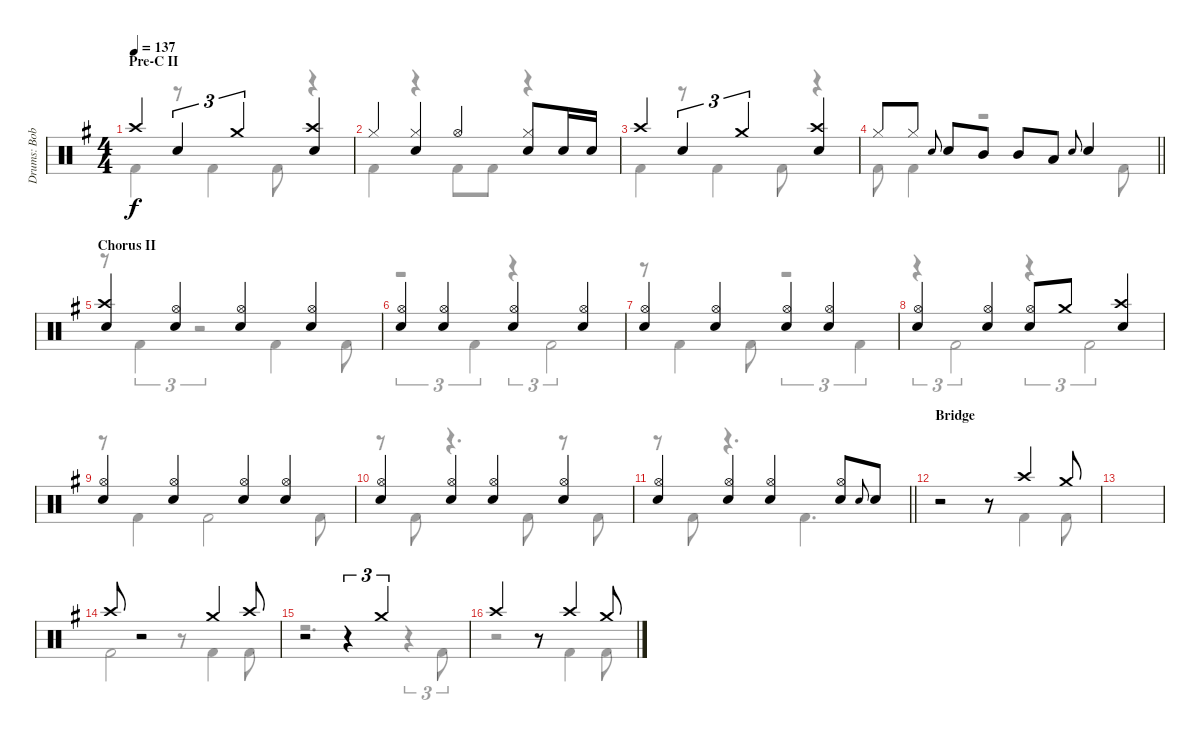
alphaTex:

\track ("Drums: Bobby" "Drums: Bob") {instrument percussion}
\staff {score}
\articulation defaults
\voice
\ts (4 4)
\section ("" "Pre-C II")
\tempo 137
\clef neutral
\ks g "Crash high (hit)".4{dy f} "Snare (hit) 2".4{tu (3 2)} "Crash medium (hit)".2{tu (3 2)}
("Crash high (hit)" "Snare (hit) 2").4 |
"Hi-Hat (closed)".4 ("Hi-Hat (closed)" "Snare (hit) 2").4 "Hi-Hat (open)".4 ("Hi-Hat (closed)" "Snare (hit) 2").8 "Snare (hit) 2".16 "Snare (hit) 2".16 |
"Crash high (hit)".4 "Snare (hit) 2".4{tu (3 2)} "Crash medium (hit)".2{tu (3 2)} ("Crash high (hit)" "Snare (hit) 2").4 |
\barLineRight lightlight "Hi-Hat (closed)".8 "Hi-Hat (closed)".8 "Electric Snare (hit)".8{gr onbeat} "Snare (hit) 2".8 "Mid Tom (hit)".8 "Mid Tom (hit)".8 "Low Tom (hit)".8 "Electric Snare (hit)".8{gr onbeat} "Snare (hit) 2".4
|
\section ("" "Chorus II")
("Crash high (hit)" "Snare (hit) 2").4 ("Hi-Hat (open)" "Snare (hit) 2").4 ("Hi-Hat (open)" "Snare (hit) 2").4 ("Hi-Hat (open)" "Snare (hit) 2").4 |
("Hi-Hat (open)" "Snare (hit) 2").4 ("Hi-Hat (open)" "Snare (hit) 2").4 ("Hi-Hat (open)" "Snare (hit) 2").4 ("Hi-Hat (open)" "Snare (hit) 2").4 |
("Hi-Hat (open)" "Snare (hit) 2").4 ("Hi-Hat (open)" "Snare (hit) 2").4 ("Hi-Hat (open)" "Snare (hit) 2").4 ("Hi-Hat (open)" "Snare (hit) 2").4 |
("Hi-Hat (open)" "Snare (hit) 2").4 ("Hi-Hat (open)" "Snare (hit) 2").4 ("Hi-Hat (open)" "Snare (hit) 2").8 "Crash medium (hit)".8 ("Crash high (hit)" "Snare (hit) 2").4 |
("Hi-Hat (open)" "Snare (hit) 2").4 ("Hi-Hat (open)" "Snare (hit) 2").4 ("Hi-Hat (open)" "Snare (hit) 2").4 ("Hi-Hat (open)" "Snare (hit) 2").4 |
("Hi-Hat (open)" "Snare (hit) 2").4 ("Hi-Hat (open)" "Snare (hit) 2").4 ("Hi-Hat (open)" "Snare (hit) 2").4 ("Hi-Hat (open)" "Snare (hit) 2").4 |
\barLineRight lightlight
("Hi-Hat (open)" "Snare (hit) 2").4 ("Hi-Hat (open)" "Snare (hit) 2").4 ("Hi-Hat (open)" "Snare (hit) 2").4 ("Hi-Hat (open)" "Snare (hit) 2").8 "Electric Snare (hit)".8{gr onbeat} "Snare (hit) 2".8 |
\section ("" "Bridge")
r.2 r.8 "Crash high (hit)".4 "Crash medium (hit)".8 |
|
"Crash high (hit)".8 r.2 "Crash medium (hit)".4 "Crash high (hit)".8 |
r.2 r.4{tu (3 2)} "Crash medium (hit)".2{tu (3 2)} |
"Crash high (hit)".2 r.8 "Crash high (hit)".4 "Crash medium (hit)".8
\voice
\clef neutral
\ottava regular
\simile none
\ks g "Kick (hit) 2".4{dy f}
r.8 "Kick (hit) 2".4 "Kick (hit) 2".8 r.4 |
"Kick (hit) 2".4 r.4 "Kick (hit) 2".8 "Kick (hit) 2".8 r.4 |
"Kick (hit) 2".4 r.8 "Kick (hit) 2".4 "Kick (hit) 2".8 r.4 |
\barLineRight lightlight "Kick (hit) 2".8 "Kick (hit) 2".4
r.2 "Kick (hit) 2".8 |
r.8 "Kick (hit) 2".4{tu (3 2)} r.2{tu (3 2)} "Kick (hit) 2".4 "Kick (hit) 2".8 |
r.2{tu (3 2)} "Kick (hit) 2".4{tu (3 2)} r.4{tu (3 2)} "Kick (hit) 2".2{tu (3 2)} |
r.8 "Kick (hit) 2".4 "Kick (hit) 2".8 r.2{tu (3 2)} "Kick (hit) 2".4{tu (3 2)} |
r.4{tu (3 2)} "Kick (hit) 2".2{tu (3 2)} r.4{tu (3 2)} "Kick (hit) 2".2{tu (3 2)} |
r.8 "Kick (hit) 2".4 "Kick (hit) 2".2 "Kick (hit) 2".8 |
r.8 "Kick (hit) 2".8 r.4{d} "Kick (hit) 2".8 r.8 "Kick (hit) 2".8 |
\barLineRight lightlight
r.8 "Kick (hit) 2".8 r.4{d} "Kick (hit) 2".4{d} |
r.2 r.8 "Kick (hit) 2".4 "Kick (hit) 2".8 |
|
"Kick (hit) 2".2 r.8 "Kick (hit) 2".4 "Kick (hit) 2".8 |
r.2{d} r.4{tu (3 2)} "Kick (hit) 2".8{tu (3 2)} |
r.2 r.8 "Kick (hit) 2".4 "Kick (hit) 2".8
